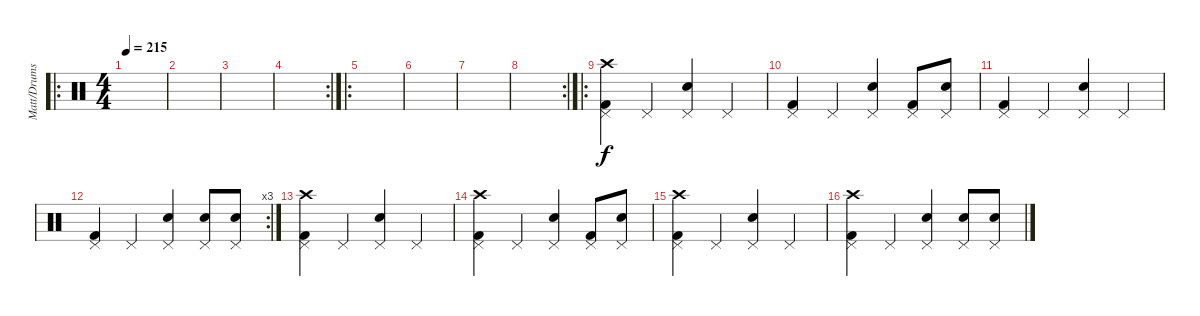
\track ("Matt/Drums" "Matt/Drums") {instrument percussion}
\staff {score}
\articulation defaults
\ro
\ts (4 4)
\tempo 215
\clef neutral
\ks c
|
|
|
\rc 2
|
\ro
|
|
|
\rc 2
|
\ro
("Crash high (hit)" "Pedal Hi-Hat (hit)" "Kick (hit) 2").4 "Pedal Hi-Hat (hit)".4 ("Pedal Hi-Hat (hit)" "Electric Snare (hit)").4 "Pedal Hi-Hat (hit)".4 |
("Pedal Hi-Hat (hit)" "Kick (hit) 2").4 "Pedal Hi-Hat (hit)".4 ("Pedal Hi-Hat (hit)" "Electric Snare (hit)").4 ("Pedal Hi-Hat (hit)" "Kick (hit) 2").8 ("Pedal Hi-Hat (hit)" "Electric Snare (hit)").8 |
("Pedal Hi-Hat (hit)" "Kick (hit) 2").4 "Pedal Hi-Hat (hit)".4 ("Pedal Hi-Hat (hit)" "Electric Snare (hit)").4 "Pedal Hi-Hat (hit)".4 |
\rc 3
("Pedal Hi-Hat (hit)" "Kick (hit) 2").4 "Pedal Hi-Hat (hit)".4 ("Pedal Hi-Hat (hit)" "Electric Snare (hit)").4 ("Pedal Hi-Hat (hit)" "Electric Snare (hit)").8 ("Pedal Hi-Hat (hit)" "Electric Snare (hit)").8 |
("Crash high (hit)" "Pedal Hi-Hat (hit)" "Kick (hit) 2").4 "Pedal Hi-Hat (hit)".4 ("Pedal Hi-Hat (hit)" "Electric Snare (hit)").4 "Pedal Hi-Hat (hit)".4 |
("Crash high (hit)" "Pedal Hi-Hat (hit)" "Kick (hit) 2").4 "Pedal Hi-Hat (hit)".4 ("Pedal Hi-Hat (hit)" "Electric Snare (hit)").4 ("Pedal Hi-Hat (hit)" "Kick (hit) 2").8 ("Pedal Hi-Hat (hit)" "Electric Snare (hit)").8 |
("Crash high (hit)" "Pedal Hi-Hat (hit)" "Kick (hit) 2").4 "Pedal Hi-Hat (hit)".4 ("Pedal Hi-Hat (hit)" "Electric Snare (hit)").4 "Pedal Hi-Hat (hit)".4 |
("Crash high (hit)" "Pedal Hi-Hat (hit)" "Kick (hit) 2").4 "Pedal Hi-Hat (hit)".4 ("Pedal Hi-Hat (hit)" "Electric Snare (hit)").4 ("Pedal Hi-Hat (hit)" "Electric Snare (hit)").8 ("Pedal Hi-Hat (hit)" "Electric Snare (hit)").8
